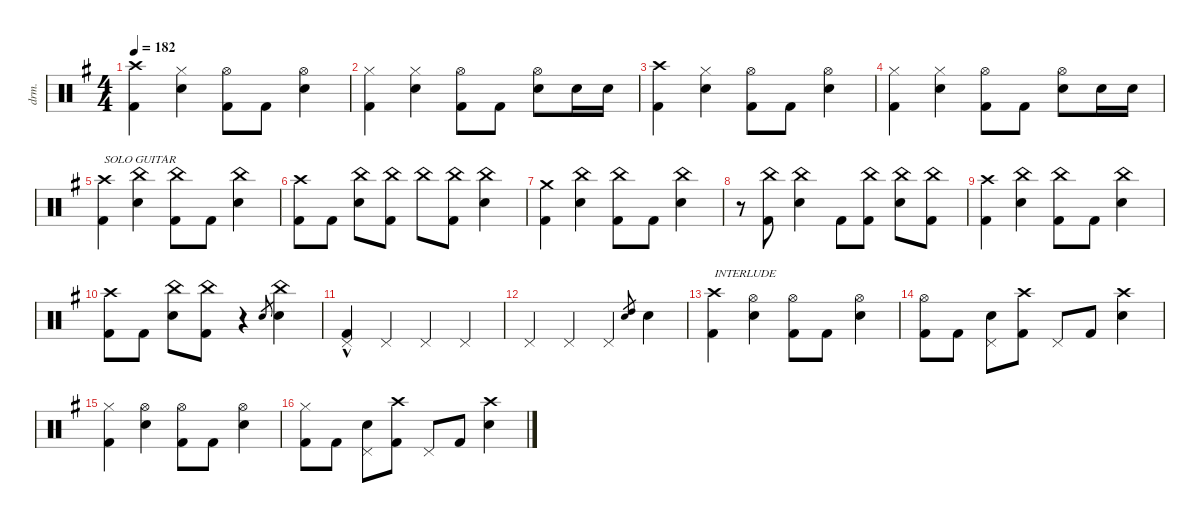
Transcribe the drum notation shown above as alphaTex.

\defaultSystemsLayout 4
\hideDynamics
\bracketExtendMode nobrackets
\otherSystemsTrackNameOrientation horizontal
\track ("Drum" "drm.") {defaultSystemsLayout 4 instrument percussion}
\staff {score}
\articulation defaults
\ts (4 4)
\tempo 182
\clef neutral
\ks g
("Kick (hit) 2"{acc forcenatural} "Crash high (hit)"{acc forcenatural}).4{dy f beam Down} ("Snare (hit) 2"{acc forcenatural} "Hi-Hat (closed)"{acc forcenatural}).4{beam Down} ("Kick (hit) 2"{acc forcenatural} "Hi-Hat (open)"{acc forcenatural}).8{beam Down} "Kick (hit) 2"{acc forcenatural}.8{beam Down} ("Snare (hit) 2"{acc forcenatural} "Hi-Hat (open)"{acc forcenatural}).4{beam Down} |
("Kick (hit) 2"{acc forcenatural} "Hi-Hat (closed)"{acc forcenatural}).4{beam Down} ("Snare (hit) 2"{acc forcenatural} "Hi-Hat (closed)"{acc forcenatural}).4{beam Down} ("Kick (hit) 2"{acc forcenatural} "Hi-Hat (open)"{acc forcenatural}).8{beam Down} "Kick (hit) 2"{acc forcenatural}.8{beam Down} ("Snare (hit) 2"{acc forcenatural} "Hi-Hat (open)"{acc forcenatural}).8{beam Down} "Snare (hit) 2"{acc forcenatural}.16{beam Down} "Snare (hit) 2"{acc forcenatural}.16{beam Down} |
("Kick (hit) 2"{acc forcenatural} "Crash high (hit)"{acc forcenatural}).4{beam Down} ("Snare (hit) 2"{acc forcenatural} "Hi-Hat (closed)"{acc forcenatural}).4{beam Down} ("Kick (hit) 2"{acc forcenatural} "Hi-Hat (open)"{acc forcenatural}).8{beam Down} "Kick (hit) 2"{acc forcenatural}.8{beam Down} ("Snare (hit) 2"{acc forcenatural} "Hi-Hat (open)"{acc forcenatural}).4{beam Down} |
("Kick (hit) 2"{acc forcenatural} "Hi-Hat (closed)"{acc forcenatural}).4{beam Down} ("Snare (hit) 2"{acc forcenatural} "Hi-Hat (closed)"{acc forcenatural}).4{beam Down} ("Kick (hit) 2"{acc forcenatural} "Hi-Hat (open)"{acc forcenatural}).8{beam Down} "Kick (hit) 2"{acc forcenatural}.8{beam Down} ("Snare (hit) 2"{acc forcenatural} "Hi-Hat (open)"{acc forcenatural}).8{beam Down} "Snare (hit) 2"{acc forcenatural}.16{beam Down} "Snare (hit) 2"{acc forcenatural}.16{beam Down} |
("Kick (hit) 2"{acc forcenatural} "Crash high (hit)"{acc forcenatural}).4{txt "SOLO GUITAR" beam Down} ("Snare (hit) 2"{acc forcenatural} "China (hit)"{acc forcenatural}).4{beam Down} ("China (hit)"{acc forcenatural} "Kick (hit) 2"{acc forcenatural}).8{beam Down} "Kick (hit) 2"{acc forcenatural}.8{beam Down} ("China (hit)"{acc forcenatural} "Snare (hit) 2"{acc forcenatural}).4{beam Down} |
("Kick (hit) 2"{acc forcenatural} "Crash high (hit)"{acc forcenatural}).8{beam Down} "Kick (hit) 2"{acc forcenatural}.8{beam Down} ("China (hit)"{acc forcenatural} "Snare (hit) 2"{acc forcenatural}).8{beam Down} ("Kick (hit) 2"{acc forcenatural} "China (hit)"{acc forcenatural}).8{beam Down} "China (hit)"{acc forcenatural}.8{beam Down} ("China (hit)"{acc forcenatural} "Kick (hit) 2"{acc forcenatural}).8{beam Down} ("China (hit)"{acc forcenatural} "Snare (hit) 2"{acc forcenatural}).4{beam Down} |
("Kick (hit) 2"{acc forcenatural} "Crash medium (hit)"{acc forcenatural}).4{beam Down} ("Snare (hit) 2"{acc forcenatural} "China (hit)"{acc forcenatural}).4{beam Down} ("China (hit)"{acc forcenatural} "Kick (hit) 2"{acc forcenatural}).8{beam Down} "Kick (hit) 2"{acc forcenatural}.8{beam Down} ("China (hit)"{acc forcenatural} "Snare (hit) 2"{acc forcenatural}).4{beam Down} |
r.8{beam Down} ("Kick (hit) 2"{acc forcenatural} "China (hit)"{acc forcenatural}).8{beam Down} ("Snare (hit) 2"{acc forcenatural} "China (hit)"{acc forcenatural}).4{beam Down} "Kick (hit) 2"{acc forcenatural}.8{beam Down} ("Kick (hit) 2"{acc forcenatural} "China (hit)"{acc forcenatural}).8{beam Down} ("Snare (hit) 2"{acc forcenatural} "China (hit)"{acc forcenatural}).8{beam Down} ("Kick (hit) 2"{acc forcenatural} "China (hit)"{acc forcenatural}).8{beam Down} |
("Kick (hit) 2"{acc forcenatural} "Crash high (hit)"{acc forcenatural}).4{beam Down} ("Snare (hit) 2"{acc forcenatural} "China (hit)"{acc forcenatural}).4{beam Down} ("China (hit)"{acc forcenatural} "Kick (hit) 2"{acc forcenatural}).8{beam Down} "Kick (hit) 2"{acc forcenatural}.8{beam Down} ("China (hit)"{acc forcenatural} "Snare (hit) 2"{acc forcenatural}).4{beam Down} |
("Kick (hit) 2"{acc forcenatural} "Crash high (hit)"{acc forcenatural}).8{beam Down} "Kick (hit) 2"{acc forcenatural}.8{beam Down} ("China (hit)"{acc forcenatural} "Snare (hit) 2"{acc forcenatural}).8{beam Down} ("Kick (hit) 2"{acc forcenatural} "China (hit)"{acc forcenatural}).8{beam Down} r.4{beam Down} "Snare (hit) 2"{acc forcenatural}.8{gr beam Up} ("China (hit)"{acc forcenatural} "Snare (hit) 2"{acc forcenatural}).4{beam Down} |
("Kick (hit) 2"{hac acc forcenatural} "Pedal Hi-Hat (hit)"{acc forcenatural}).4{beam Up} "Pedal Hi-Hat (hit)"{acc forcenatural}.4{beam Up} "Pedal Hi-Hat (hit)"{acc forcenatural}.4{beam Up} "Pedal Hi-Hat (hit)"{acc forcenatural}.4{beam Up} |
"Pedal Hi-Hat (hit)"{acc forcenatural}.4{beam Up} "Pedal Hi-Hat (hit)"{acc forcenatural}.4{beam Up} "Pedal Hi-Hat (hit)"{acc forcenatural}.4{beam Up} ("Snare (hit) 2"{acc forcenatural} "High Tom (hit)"{acc forcenatural}).8{gr beam Up} "Snare (hit) 2"{acc forcenatural}.4{beam Down} |
("Kick (hit) 2"{acc forcenatural} "Crash high (hit)"{acc forcenatural}).4{txt "INTERLUDE" beam Down} ("Snare (hit) 2"{acc forcenatural} "Hi-Hat (open)"{acc forcenatural}).4{beam Down} ("Kick (hit) 2"{acc forcenatural} "Hi-Hat (open)"{acc forcenatural}).8{beam Down} "Kick (hit) 2"{acc forcenatural}.8{beam Down} ("Snare (hit) 2"{acc forcenatural} "Hi-Hat (open)"{acc forcenatural}).4{beam Down} |
("Kick (hit) 2"{acc forcenatural} "Hi-Hat (open)"{acc forcenatural}).8{beam Down} "Kick (hit) 2"{acc forcenatural}.8{beam Down} ("Snare (hit) 2"{acc forcenatural} "Pedal Hi-Hat (hit)"{acc forcenatural}).8{beam Down} ("Kick (hit) 2"{acc forcenatural} "Crash high (hit)"{acc forcenatural}).8{beam Down} "Pedal Hi-Hat (hit)"{acc forcenatural}.8{beam Up} "Kick (hit) 2"{acc forcenatural}.8{beam Up} ("Snare (hit) 2"{acc forcenatural} "Crash high (hit)"{acc forcenatural}).4{beam Down} |
("Hi-Hat (closed)"{acc forcenatural} "Kick (hit) 2"{acc forcenatural}).4{beam Down} ("Snare (hit) 2"{acc forcenatural} "Hi-Hat (open)"{acc forcenatural}).4{beam Down} ("Kick (hit) 2"{acc forcenatural} "Hi-Hat (open)"{acc forcenatural}).8{beam Down} "Kick (hit) 2"{acc forcenatural}.8{beam Down} ("Snare (hit) 2"{acc forcenatural} "Hi-Hat (open)"{acc forcenatural}).4{beam Down} |
("Kick (hit) 2"{acc forcenatural} "Hi-Hat (closed)"{acc forcenatural}).8{beam Down} "Kick (hit) 2"{acc forcenatural}.8{beam Down} ("Snare (hit) 2"{acc forcenatural} "Pedal Hi-Hat (hit)"{acc forcenatural}).8{beam Down} ("Kick (hit) 2"{acc forcenatural} "Crash high (hit)"{acc forcenatural}).8{beam Down} "Pedal Hi-Hat (hit)"{acc forcenatural}.8{beam Up} "Kick (hit) 2"{acc forcenatural}.8{beam Up} ("Snare (hit) 2"{acc forcenatural} "Crash high (hit)"{acc forcenatural}).4{beam Down}
